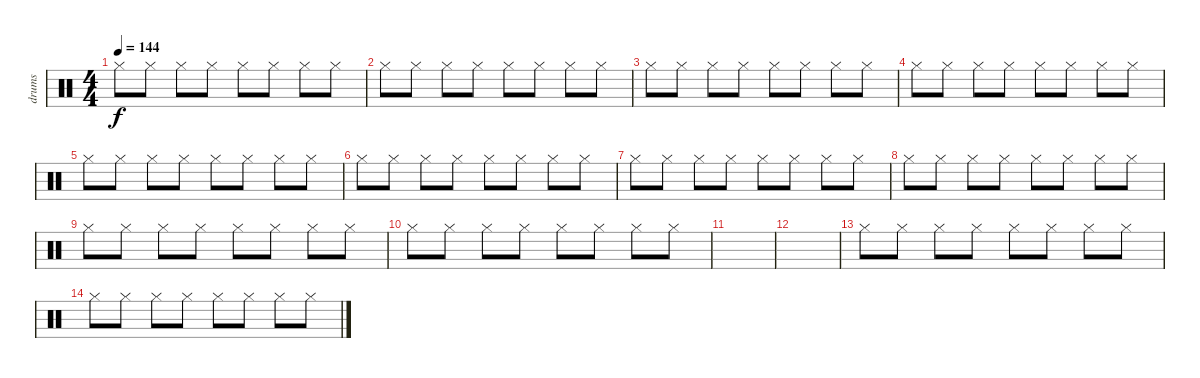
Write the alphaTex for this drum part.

\track ("drums" "drums") {instrument percussion}
\staff {score}
\articulation defaults
\ts (4 4)
\tempo 144
\clef neutral
\ks c "Hi-Hat (closed)".8{dy f} "Hi-Hat (closed)".8 "Hi-Hat (closed)".8 "Hi-Hat (closed)".8 "Hi-Hat (closed)".8 "Hi-Hat (closed)".8 "Hi-Hat (closed)".8 "Hi-Hat (closed)".8
|
"Hi-Hat (closed)".8 "Hi-Hat (closed)".8 "Hi-Hat (closed)".8 "Hi-Hat (closed)".8 "Hi-Hat (closed)".8 "Hi-Hat (closed)".8 "Hi-Hat (closed)".8 "Hi-Hat (closed)".8 |
"Hi-Hat (closed)".8 "Hi-Hat (closed)".8 "Hi-Hat (closed)".8 "Hi-Hat (closed)".8 "Hi-Hat (closed)".8 "Hi-Hat (closed)".8 "Hi-Hat (closed)".8 "Hi-Hat (closed)".8 |
"Hi-Hat (closed)".8 "Hi-Hat (closed)".8 "Hi-Hat (closed)".8 "Hi-Hat (closed)".8 "Hi-Hat (closed)".8 "Hi-Hat (closed)".8 "Hi-Hat (closed)".8 "Hi-Hat (closed)".8 |
"Hi-Hat (closed)".8 "Hi-Hat (closed)".8 "Hi-Hat (closed)".8 "Hi-Hat (closed)".8 "Hi-Hat (closed)".8 "Hi-Hat (closed)".8 "Hi-Hat (closed)".8 "Hi-Hat (closed)".8 |
"Hi-Hat (closed)".8 "Hi-Hat (closed)".8 "Hi-Hat (closed)".8 "Hi-Hat (closed)".8 "Hi-Hat (closed)".8 "Hi-Hat (closed)".8 "Hi-Hat (closed)".8 "Hi-Hat (closed)".8 |
"Hi-Hat (closed)".8 "Hi-Hat (closed)".8 "Hi-Hat (closed)".8 "Hi-Hat (closed)".8 "Hi-Hat (closed)".8 "Hi-Hat (closed)".8 "Hi-Hat (closed)".8 "Hi-Hat (closed)".8 |
"Hi-Hat (closed)".8 "Hi-Hat (closed)".8 "Hi-Hat (closed)".8 "Hi-Hat (closed)".8 "Hi-Hat (closed)".8 "Hi-Hat (closed)".8 "Hi-Hat (closed)".8 "Hi-Hat (closed)".8 |
"Hi-Hat (closed)".8 "Hi-Hat (closed)".8 "Hi-Hat (closed)".8 "Hi-Hat (closed)".8 "Hi-Hat (closed)".8 "Hi-Hat (closed)".8 "Hi-Hat (closed)".8 "Hi-Hat (closed)".8 |
"Hi-Hat (closed)".8 "Hi-Hat (closed)".8 "Hi-Hat (closed)".8 "Hi-Hat (closed)".8 "Hi-Hat (closed)".8 "Hi-Hat (closed)".8 "Hi-Hat (closed)".8 "Hi-Hat (closed)".8 |
|
|
"Hi-Hat (closed)".8 "Hi-Hat (closed)".8 "Hi-Hat (closed)".8 "Hi-Hat (closed)".8 "Hi-Hat (closed)".8 "Hi-Hat (closed)".8 "Hi-Hat (closed)".8 "Hi-Hat (closed)".8 |
"Hi-Hat (closed)".8 "Hi-Hat (closed)".8 "Hi-Hat (closed)".8 "Hi-Hat (closed)".8 "Hi-Hat (closed)".8 "Hi-Hat (closed)".8 "Hi-Hat (closed)".8 "Hi-Hat (closed)".8
